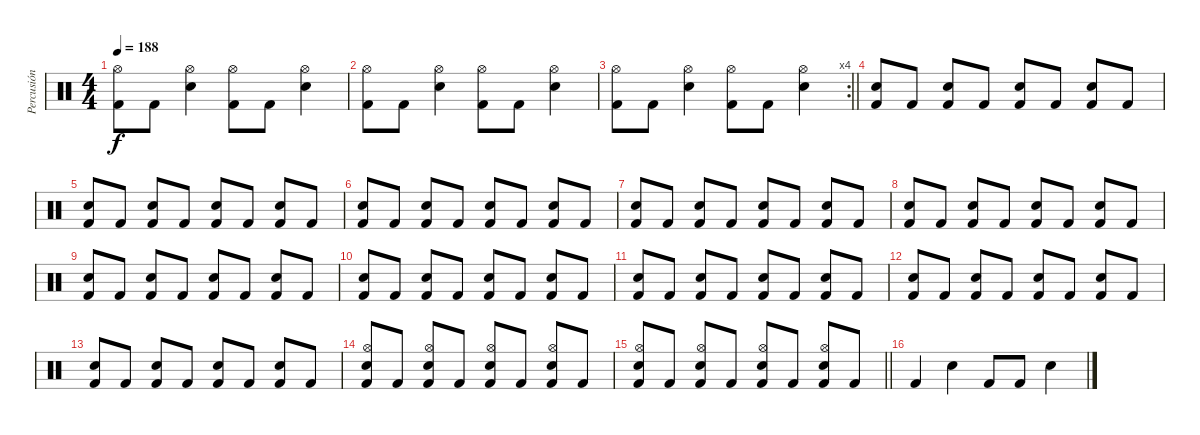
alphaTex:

\track ("Percusión" "Percusión") {instrument percussion}
\staff {score}
\articulation defaults
\ts (4 4)
\tempo 188
\clef neutral
\ks c
("Kick (hit) 2" "Hi-Hat (open)").8{dy f} "Kick (hit) 2".8 ("Electric Snare (hit)" "Hi-Hat (open)").4 ("Kick (hit) 2" "Hi-Hat (open)").8 "Kick (hit) 2".8 ("Electric Snare (hit)" "Hi-Hat (open)").4 |
("Kick (hit) 2" "Hi-Hat (open)").8 "Kick (hit) 2".8 ("Electric Snare (hit)" "Hi-Hat (open)").4 ("Kick (hit) 2" "Hi-Hat (open)").8 "Kick (hit) 2".8 ("Electric Snare (hit)" "Hi-Hat (open)").4 |
\rc 4
\barLineRight lightlight
("Kick (hit) 2" "Hi-Hat (open)").8 "Kick (hit) 2".8 ("Electric Snare (hit)" "Hi-Hat (open)").4 ("Kick (hit) 2" "Hi-Hat (open)").8 "Kick (hit) 2".8 ("Electric Snare (hit)" "Hi-Hat (open)").4 |
("Kick (hit) 2" "Electric Snare (hit)").8 "Kick (hit) 2".8 ("Kick (hit) 2" "Electric Snare (hit)").8 "Kick (hit) 2".8 ("Kick (hit) 2" "Electric Snare (hit)").8 "Kick (hit) 2".8 ("Kick (hit) 2" "Electric Snare (hit)").8 "Kick (hit) 2".8 |
("Kick (hit) 2" "Electric Snare (hit)").8 "Kick (hit) 2".8 ("Kick (hit) 2" "Electric Snare (hit)").8 "Kick (hit) 2".8 ("Kick (hit) 2" "Electric Snare (hit)").8 "Kick (hit) 2".8 ("Kick (hit) 2" "Electric Snare (hit)").8 "Kick (hit) 2".8 |
("Kick (hit) 2" "Electric Snare (hit)").8 "Kick (hit) 2".8 ("Kick (hit) 2" "Electric Snare (hit)").8 "Kick (hit) 2".8 ("Kick (hit) 2" "Electric Snare (hit)").8 "Kick (hit) 2".8 ("Kick (hit) 2" "Electric Snare (hit)").8 "Kick (hit) 2".8 |
("Kick (hit) 2" "Electric Snare (hit)").8 "Kick (hit) 2".8 ("Kick (hit) 2" "Electric Snare (hit)").8 "Kick (hit) 2".8 ("Kick (hit) 2" "Electric Snare (hit)").8 "Kick (hit) 2".8 ("Kick (hit) 2" "Electric Snare (hit)").8 "Kick (hit) 2".8 |
("Kick (hit) 2" "Electric Snare (hit)").8 "Kick (hit) 2".8 ("Kick (hit) 2" "Electric Snare (hit)").8 "Kick (hit) 2".8 ("Kick (hit) 2" "Electric Snare (hit)").8 "Kick (hit) 2".8 ("Kick (hit) 2" "Electric Snare (hit)").8 "Kick (hit) 2".8 |
("Kick (hit) 2" "Electric Snare (hit)").8 "Kick (hit) 2".8 ("Kick (hit) 2" "Electric Snare (hit)").8 "Kick (hit) 2".8 ("Kick (hit) 2" "Electric Snare (hit)").8 "Kick (hit) 2".8 ("Kick (hit) 2" "Electric Snare (hit)").8 "Kick (hit) 2".8 |
("Kick (hit) 2" "Electric Snare (hit)").8 "Kick (hit) 2".8 ("Kick (hit) 2" "Electric Snare (hit)").8 "Kick (hit) 2".8 ("Kick (hit) 2" "Electric Snare (hit)").8 "Kick (hit) 2".8 ("Kick (hit) 2" "Electric Snare (hit)").8 "Kick (hit) 2".8 |
("Kick (hit) 2" "Electric Snare (hit)").8 "Kick (hit) 2".8 ("Kick (hit) 2" "Electric Snare (hit)").8 "Kick (hit) 2".8 ("Kick (hit) 2" "Electric Snare (hit)").8 "Kick (hit) 2".8 ("Kick (hit) 2" "Electric Snare (hit)").8 "Kick (hit) 2".8 |
("Kick (hit) 2" "Electric Snare (hit)").8 "Kick (hit) 2".8 ("Kick (hit) 2" "Electric Snare (hit)").8 "Kick (hit) 2".8 ("Kick (hit) 2" "Electric Snare (hit)").8 "Kick (hit) 2".8 ("Kick (hit) 2" "Electric Snare (hit)").8 "Kick (hit) 2".8 |
("Kick (hit) 2" "Electric Snare (hit)").8 "Kick (hit) 2".8 ("Kick (hit) 2" "Electric Snare (hit)").8 "Kick (hit) 2".8 ("Kick (hit) 2" "Electric Snare (hit)").8 "Kick (hit) 2".8 ("Kick (hit) 2" "Electric Snare (hit)").8 "Kick (hit) 2".8 |
("Kick (hit) 2" "Electric Snare (hit)" "Hi-Hat (open)").8 "Kick (hit) 2".8 ("Kick (hit) 2" "Electric Snare (hit)" "Hi-Hat (open)").8 "Kick (hit) 2".8 ("Kick (hit) 2" "Electric Snare (hit)" "Hi-Hat (open)").8 "Kick (hit) 2".8 ("Kick (hit) 2" "Electric Snare (hit)" "Hi-Hat (open)").8 "Kick (hit) 2".8 |
\barLineRight lightlight
("Kick (hit) 2" "Electric Snare (hit)" "Hi-Hat (open)").8 "Kick (hit) 2".8 ("Kick (hit) 2" "Electric Snare (hit)" "Hi-Hat (open)").8 "Kick (hit) 2".8 ("Kick (hit) 2" "Electric Snare (hit)" "Hi-Hat (open)").8 "Kick (hit) 2".8 ("Kick (hit) 2" "Electric Snare (hit)" "Hi-Hat (open)").8 "Kick (hit) 2".8 |
"Kick (hit) 2".4 "Electric Snare (hit)".4 "Kick (hit) 2".8 "Kick (hit) 2".8 "Electric Snare (hit)".4
